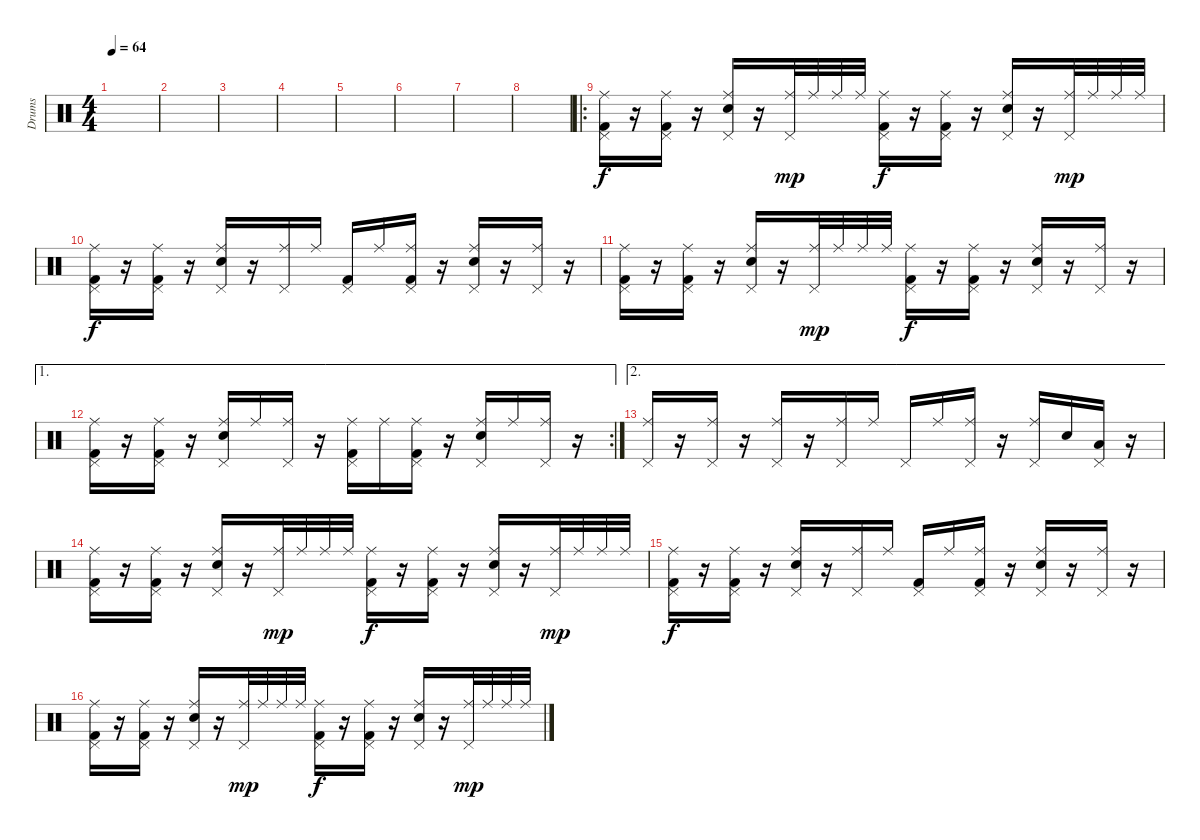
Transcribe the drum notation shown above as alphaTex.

\track ("Drums" "Drums") {instrument percussion}
\staff {score}
\articulation defaults
\ts (4 4)
\tempo 64
\clef neutral
\ks c
|
|
|
|
|
|
|
|
\ro
("Ride (middle)" "Pedal Hi-Hat (hit)" "Kick (hit) 2").16{volume 6} r.16 ("Ride (middle)" "Pedal Hi-Hat (hit)" "Kick (hit) 2").16 r.16 ("Ride (middle)" "Pedal Hi-Hat (hit)" "Snare (hit) 2").16 r.16 ("Ride (middle)" "Pedal Hi-Hat (hit)").32{dy mp} "Ride (middle)".32 "Ride (middle)".32 "Ride (middle)".32 ("Ride (middle)" "Pedal Hi-Hat (hit)" "Kick (hit) 2").16{dy f} r.16 ("Ride (middle)" "Pedal Hi-Hat (hit)" "Kick (hit) 2").16 r.16 ("Ride (middle)" "Pedal Hi-Hat (hit)" "Snare (hit) 2").16 r.16 ("Ride (middle)" "Pedal Hi-Hat (hit)").32{dy mp} "Ride (middle)".32 "Ride (middle)".32 "Ride (middle)".32 |
("Ride (middle)" "Pedal Hi-Hat (hit)" "Kick (hit) 2").16{dy f} r.16 ("Ride (middle)" "Pedal Hi-Hat (hit)" "Kick (hit) 2").16 r.16 ("Ride (middle)" "Pedal Hi-Hat (hit)" "Snare (hit) 2").16 r.16 ("Ride (middle)" "Pedal Hi-Hat (hit)").16 "Ride (middle)".16 ("Pedal Hi-Hat (hit)" "Kick (hit) 2").16 "Ride (middle)".16 ("Ride (middle)" "Pedal Hi-Hat (hit)" "Kick (hit) 2").16 r.16 ("Ride (middle)" "Pedal Hi-Hat (hit)" "Snare (hit) 2").16 r.16 ("Ride (middle)" "Pedal Hi-Hat (hit)").16 r.16 |
("Ride (middle)" "Pedal Hi-Hat (hit)" "Kick (hit) 2").16 r.16 ("Ride (middle)" "Pedal Hi-Hat (hit)" "Kick (hit) 2").16 r.16 ("Ride (middle)" "Pedal Hi-Hat (hit)" "Snare (hit) 2").16 r.16 ("Ride (middle)" "Pedal Hi-Hat (hit)").32{dy mp} "Ride (middle)".32 "Ride (middle)".32 "Ride (middle)".32 ("Ride (middle)" "Pedal Hi-Hat (hit)" "Kick (hit) 2").16{dy f} r.16 ("Ride (middle)" "Pedal Hi-Hat (hit)" "Kick (hit) 2").16 r.16 ("Ride (middle)" "Pedal Hi-Hat (hit)" "Snare (hit) 2").16 r.16 ("Ride (middle)" "Pedal Hi-Hat (hit)").16 r.16 |
\ae 1
\rc 2
("Ride (middle)" "Pedal Hi-Hat (hit)" "Kick (hit) 2").16 r.16 ("Ride (middle)" "Pedal Hi-Hat (hit)" "Kick (hit) 2").16 r.16 ("Ride (middle)" "Pedal Hi-Hat (hit)" "Snare (hit) 2").16 "Ride (middle)".16 ("Ride (middle)" "Pedal Hi-Hat (hit)").16 r.16 ("Ride (middle)" "Pedal Hi-Hat (hit)" "Kick (hit) 2").16 "Ride (middle)".16 ("Ride (middle)" "Pedal Hi-Hat (hit)" "Kick (hit) 2").16 r.16 ("Ride (middle)" "Pedal Hi-Hat (hit)" "Snare (hit) 2").16 "Ride (middle)".16 ("Ride (middle)" "Pedal Hi-Hat (hit)").16 r.16 |
\ae 2
("Ride (middle)" "Pedal Hi-Hat (hit)").16 r.16 ("Ride (middle)" "Pedal Hi-Hat (hit)").16 r.16 ("Ride (middle)" "Pedal Hi-Hat (hit)").16 r.16 ("Ride (middle)" "Pedal Hi-Hat (hit)").16 "Ride (middle)".16 "Pedal Hi-Hat (hit)".16 "Ride (middle)".16 ("Ride (middle)" "Pedal Hi-Hat (hit)").16 r.16 ("Ride (middle)" "Pedal Hi-Hat (hit)").16 "Snare (hit) 2".16 ("Pedal Hi-Hat (hit)" "Low Tom (hit)").16 r.16 |
("Ride (middle)" "Pedal Hi-Hat (hit)" "Kick (hit) 2").16 r.16 ("Ride (middle)" "Pedal Hi-Hat (hit)" "Kick (hit) 2").16 r.16 ("Ride (middle)" "Pedal Hi-Hat (hit)" "Snare (hit) 2").16 r.16 ("Ride (middle)" "Pedal Hi-Hat (hit)").32{dy mp} "Ride (middle)".32 "Ride (middle)".32 "Ride (middle)".32 ("Ride (middle)" "Pedal Hi-Hat (hit)" "Kick (hit) 2").16{dy f} r.16 ("Ride (middle)" "Pedal Hi-Hat (hit)" "Kick (hit) 2").16 r.16 ("Ride (middle)" "Pedal Hi-Hat (hit)" "Snare (hit) 2").16 r.16 ("Ride (middle)" "Pedal Hi-Hat (hit)").32{dy mp} "Ride (middle)".32 "Ride (middle)".32 "Ride (middle)".32 |
("Ride (middle)" "Pedal Hi-Hat (hit)" "Kick (hit) 2").16{dy f} r.16 ("Ride (middle)" "Pedal Hi-Hat (hit)" "Kick (hit) 2").16 r.16 ("Ride (middle)" "Pedal Hi-Hat (hit)" "Snare (hit) 2").16 r.16 ("Ride (middle)" "Pedal Hi-Hat (hit)").16 "Ride (middle)".16 ("Pedal Hi-Hat (hit)" "Kick (hit) 2").16 "Ride (middle)".16 ("Ride (middle)" "Pedal Hi-Hat (hit)" "Kick (hit) 2").16 r.16 ("Ride (middle)" "Pedal Hi-Hat (hit)" "Snare (hit) 2").16 r.16 ("Ride (middle)" "Pedal Hi-Hat (hit)").16 r.16 |
("Ride (middle)" "Pedal Hi-Hat (hit)" "Kick (hit) 2").16 r.16 ("Ride (middle)" "Pedal Hi-Hat (hit)" "Kick (hit) 2").16 r.16 ("Ride (middle)" "Pedal Hi-Hat (hit)" "Snare (hit) 2").16 r.16 ("Ride (middle)" "Pedal Hi-Hat (hit)").32{dy mp} "Ride (middle)".32 "Ride (middle)".32 "Ride (middle)".32 ("Ride (middle)" "Pedal Hi-Hat (hit)" "Kick (hit) 2").16{dy f} r.16 ("Ride (middle)" "Pedal Hi-Hat (hit)" "Kick (hit) 2").16 r.16 ("Ride (middle)" "Pedal Hi-Hat (hit)" "Snare (hit) 2").16 r.16 ("Ride (middle)" "Pedal Hi-Hat (hit)").32{dy mp} "Ride (middle)".32 "Ride (middle)".32 "Ride (middle)".32
